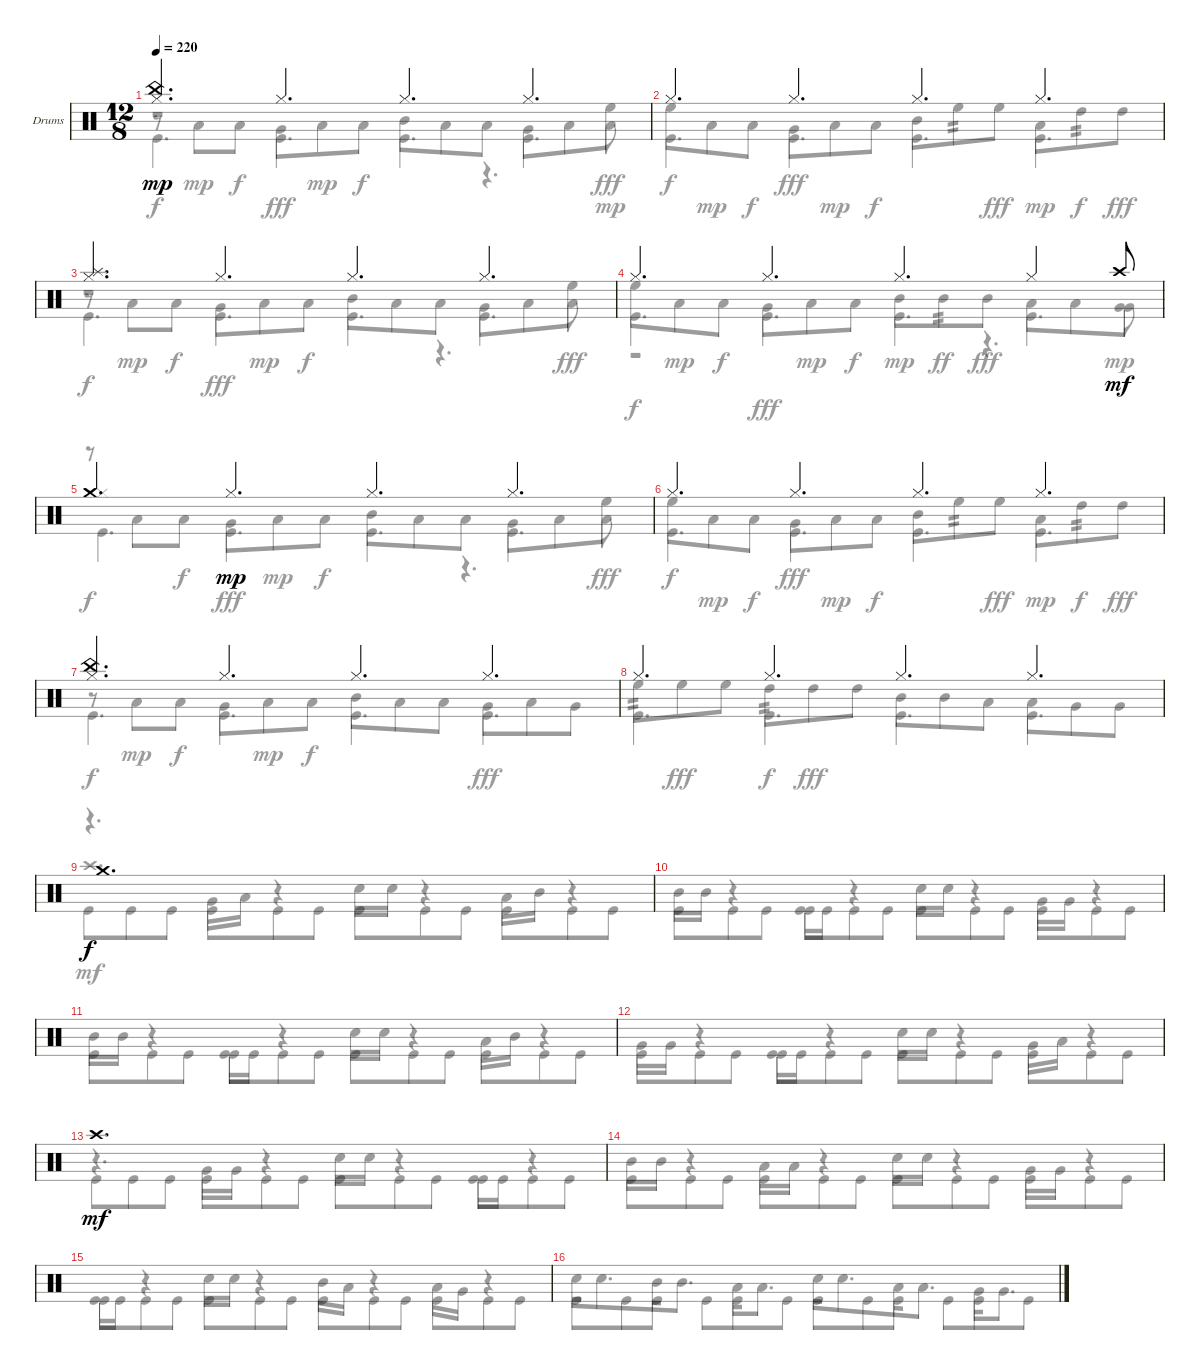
\defaultSystemsLayout 4
\bracketExtendMode groupsimilarinstruments
\firstSystemTrackNameOrientation horizontal
\otherSystemsTrackNameOrientation horizontal
\track ("Drumkit" "Drums") {instrument percussion}
\staff {score}
\articulation defaults
\voice
\ts (12 8)
\tempo 220
\clef neutral
\ks c
("China (hit)" "Hi-Hat (closed)").4{d dy mp} "Hi-Hat (closed)".4{d} "Hi-Hat (closed)".4{d} "Hi-Hat (closed)".4{d} |
"Hi-Hat (closed)".4{d} "Hi-Hat (closed)".4{d} "Hi-Hat (closed)".4{d} "Hi-Hat (closed)".4{d} |
("Splash (hit)" "Hi-Hat (closed)").4{d} "Hi-Hat (closed)".4{d} "Hi-Hat (closed)".4{d} "Hi-Hat (closed)".4{d} |
"Hi-Hat (closed)".4{d} "Hi-Hat (closed)".4{d} "Hi-Hat (closed)".4{d} "Hi-Hat (closed)".4 "Crash high (hit)".8{dy mf} |
"Crash medium (hit)".4{d} "Hi-Hat (closed)".4{d dy mp} "Hi-Hat (closed)".4{d} "Hi-Hat (closed)".4{d} |
"Hi-Hat (closed)".4{d} "Hi-Hat (closed)".4{d} "Hi-Hat (closed)".4{d} "Hi-Hat (closed)".4{d} |
("China (hit)" "Hi-Hat (closed)").4{d} "Hi-Hat (closed)".4{d} "Hi-Hat (closed)".4{d} "Hi-Hat (closed)".4{d} |
"Hi-Hat (closed)".4{d} "Hi-Hat (closed)".4{d} "Hi-Hat (closed)".4{d} "Hi-Hat (closed)".4{d} |
"Crash medium (hit)".1{d dy f} |
|
|
|
"Crash high (hit)".1{d dy mf} |
|
|
\voice
\clef neutral
\ottava regular
\simile none
\ks c
r.8{dy fff} "Low Tom (hit)".8{dy mp} "Low Tom (hit)".8{dy f} "Very Low Tom (hit)".8 "Low Tom (hit)".8{dy mp} "Low Tom (hit)".8{dy f} "Mid Tom (hit)".8 "Low Tom (hit)".8 "Low Tom (hit)".8 "Very Low Tom (hit)".8 "Low Tom (hit)".8 "High Floor Tom (hit)".8{dy fff} |
"High Floor Tom (hit)".8 "Low Tom (hit)".8{dy mp} "Low Tom (hit)".8{dy f} "Very Low Tom (hit)".8 "Low Tom (hit)".8{dy mp} "Low Tom (hit)".8{dy f} "Mid Tom (hit)".8 "High Floor Tom (hit)".8{tp 2} "High Floor Tom (hit)".8{dy fff} "Low Tom (hit)".8{dy mp} "High Tom (hit)".8{tp 2 dy f} "High Tom (hit)".8{dy fff} |
r.8 "Low Tom (hit)".8{dy mp} "Low Tom (hit)".8{dy f} "Very Low Tom (hit)".8 "Low Tom (hit)".8{dy mp} "Low Tom (hit)".8{dy f} "Mid Tom (hit)".8 "Low Tom (hit)".8 "Low Tom (hit)".8 "Very Low Tom (hit)".8 "Low Tom (hit)".8 "High Floor Tom (hit)".8{dy fff} |
"High Floor Tom (hit)".8 "Low Tom (hit)".8{dy mp} "Low Tom (hit)".8{dy f} "Very Low Tom (hit)".8 "Low Tom (hit)".8{dy mp} "Low Tom (hit)".8{dy f} "Mid Tom (hit)".8{dy mp} "Mid Tom (hit)".8{tp 2 dy ff} "Mid Tom (hit)".8{dy fff} "Low Tom (hit)".8 "Low Tom (hit)".8 "Very Low Tom (hit)".8{dy mp} |
r.8 "Low Tom (hit)".8 "Low Tom (hit)".8{dy f} "Very Low Tom (hit)".8 "Low Tom (hit)".8{dy mp} "Low Tom (hit)".8{dy f} "Mid Tom (hit)".8 "Low Tom (hit)".8 "Low Tom (hit)".8 "Very Low Tom (hit)".8 "Low Tom (hit)".8 "High Floor Tom (hit)".8{dy fff} |
"High Floor Tom (hit)".8 "Low Tom (hit)".8{dy mp} "Low Tom (hit)".8{dy f} "Very Low Tom (hit)".8 "Low Tom (hit)".8{dy mp} "Low Tom (hit)".8{dy f} "Mid Tom (hit)".8 "High Floor Tom (hit)".8{tp 2} "High Floor Tom (hit)".8{dy fff} "Low Tom (hit)".8{dy mp} "High Tom (hit)".8{tp 2 dy f} "High Tom (hit)".8{dy fff} |
r.8 "Low Tom (hit)".8{dy mp} "Low Tom (hit)".8{dy f} "Very Low Tom (hit)".8 "Low Tom (hit)".8{dy mp} "Low Tom (hit)".8{dy f} "Mid Tom (hit)".8 "Low Tom (hit)".8 "Low Tom (hit)".8 "Very Low Tom (hit)".8 "Low Tom (hit)".8 "Very Low Tom (hit)".8 |
"High Floor Tom (hit)".8{tp 2} "High Floor Tom (hit)".8{dy fff} "High Floor Tom (hit)".8 "High Tom (hit)".8{tp 2 dy f} "High Tom (hit)".8{dy fff} "High Tom (hit)".8 "Mid Tom (hit)".8 "Mid Tom (hit)".8 "Low Tom (hit)".8 "Low Tom (hit)".8 "Very Low Tom (hit)".8 "Very Low Tom (hit)".8 |
r.4{d} "Very Low Tom (hit)".16 "Low Tom (hit)".16 r.4 "Snare (hit) 2".16 "Snare (hit) 2".16 r.4 "Low Tom (hit)".16 "Mid Tom (hit)".16 r.4 |
"Mid Tom (hit)".16 "Mid Tom (hit)".16 r.4 "Kick (hit)".16 "Kick (hit)".16 r.4 "Snare (hit) 2".16 "Snare (hit) 2".16 r.4 "Very Low Tom (hit)".16 "Very Low Tom (hit)".16 r.4 |
"Mid Tom (hit)".16 "Mid Tom (hit)".16 r.4 "Kick (hit)".16 "Kick (hit)".16 r.4 "Snare (hit) 2".16 "Snare (hit) 2".16 r.4 "Low Tom (hit)".16 "Mid Tom (hit)".16 r.4 |
"Very Low Tom (hit)".16 "Very Low Tom (hit)".16 r.4 "Kick (hit)".16 "Kick (hit)".16 r.4 "Snare (hit) 2".16 "Snare (hit) 2".16 r.4 "Very Low Tom (hit)".16 "Low Tom (hit)".16 r.4 |
r.4{d} "Very Low Tom (hit)".16 "Very Low Tom (hit)".16 r.4 "Snare (hit) 2".16 "Snare (hit) 2".16 r.4 "Kick (hit)".16 "Kick (hit)".16 r.4 |
"Mid Tom (hit)".16 "Mid Tom (hit)".16 r.4 "Low Tom (hit)".16 "Low Tom (hit)".16 r.4 "Snare (hit) 2".16 "Snare (hit) 2".16 r.4 "Very Low Tom (hit)".16 "Very Low Tom (hit)".16 r.4 |
"Kick (hit)".16 "Kick (hit)".16 r.4 "Snare (hit) 2".16 "Snare (hit) 2".16 r.4 "Mid Tom (hit)".16 "Low Tom (hit)".16 r.4 "Low Tom (hit)".16 "Very Low Tom (hit)".16 r.4 |
"Snare (hit) 2".16 "Snare (hit) 2".8{d} "Mid Tom (hit)".16 "Mid Tom (hit)".8{d} "Low Tom (hit)".16 "Low Tom (hit)".8{d} "Snare (hit) 2".16 "Snare (hit) 2".8{d} "Low Tom (hit)".16 "Low Tom (hit)".8{d} "Very Low Tom (hit)".16 "Very Low Tom (hit)".8{d}
\voice
\clef neutral
\ottava regular
\simile none
\ks c "Kick (hit)".4{d dy f} "Kick (hit)".4{d dy fff} "Kick (hit)".4{d} "Kick (hit)".4{d}
|
"Kick (hit)".4{d dy f} "Kick (hit)".4{d dy fff} "Kick (hit)".4{d} "Kick (hit)".4{d} |
"Kick (hit)".4{d dy f} "Kick (hit)".4{d dy fff} "Kick (hit)".4{d} "Kick (hit)".4{d} |
"Kick (hit)".4{d dy f} "Kick (hit)".4{d dy fff} "Kick (hit)".4{d} "Kick (hit)".4{d} |
"Kick (hit)".4{d dy f} "Kick (hit)".4{d dy fff} "Kick (hit)".4{d} "Kick (hit)".4{d} |
"Kick (hit)".4{d dy f} "Kick (hit)".4{d dy fff} "Kick (hit)".4{d} "Kick (hit)".4{d} |
"Kick (hit)".4{d dy f} "Kick (hit)".4{d} "Kick (hit)".4{d} "Kick (hit)".4{d dy fff} |
"Kick (hit)".4{d} "Kick (hit)".4{d} "Kick (hit)".4{d} "Kick (hit)".4{d} |
"Kick (hit)".8 "Kick (hit)".8 "Kick (hit)".8 "Kick (hit)".8 "Kick (hit)".8 "Kick (hit)".8 "Kick (hit)".8 "Kick (hit)".8 "Kick (hit)".8 "Kick (hit)".8 "Kick (hit)".8 "Kick (hit)".8 |
"Kick (hit)".8 "Kick (hit)".8 "Kick (hit)".8 "Kick (hit)".8 "Kick (hit)".8 "Kick (hit)".8 "Kick (hit)".8 "Kick (hit)".8 "Kick (hit)".8 "Kick (hit)".8 "Kick (hit)".8 "Kick (hit)".8 |
"Kick (hit)".8 "Kick (hit)".8 "Kick (hit)".8 "Kick (hit)".8 "Kick (hit)".8 "Kick (hit)".8 "Kick (hit)".8 "Kick (hit)".8 "Kick (hit)".8 "Kick (hit)".8 "Kick (hit)".8 "Kick (hit)".8 |
"Kick (hit)".8 "Kick (hit)".8 "Kick (hit)".8 "Kick (hit)".8 "Kick (hit)".8 "Kick (hit)".8 "Kick (hit)".8 "Kick (hit)".8 "Kick (hit)".8 "Kick (hit)".8 "Kick (hit)".8 "Kick (hit)".8 |
"Kick (hit)".8 "Kick (hit)".8 "Kick (hit)".8 "Kick (hit)".8 "Kick (hit)".8 "Kick (hit)".8 "Kick (hit)".8 "Kick (hit)".8 "Kick (hit)".8 "Kick (hit)".8 "Kick (hit)".8 "Kick (hit)".8 |
"Kick (hit)".8 "Kick (hit)".8 "Kick (hit)".8 "Kick (hit)".8 "Kick (hit)".8 "Kick (hit)".8 "Kick (hit)".8 "Kick (hit)".8 "Kick (hit)".8 "Kick (hit)".8 "Kick (hit)".8 "Kick (hit)".8 |
"Kick (hit)".8 "Kick (hit)".8 "Kick (hit)".8 "Kick (hit)".8 "Kick (hit)".8 "Kick (hit)".8 "Kick (hit)".8 "Kick (hit)".8 "Kick (hit)".8 "Kick (hit)".8 "Kick (hit)".8 "Kick (hit)".8 |
"Kick (hit)".8 "Kick (hit)".8 "Kick (hit)".8 "Kick (hit)".8 "Kick (hit)".8 "Kick (hit)".8 "Kick (hit)".8 "Kick (hit)".8 "Kick (hit)".8 "Kick (hit)".8 "Kick (hit)".8 "Kick (hit)".8
\voice
\clef neutral
\ottava regular
\simile none
\ks c
r.1{dy f} r.4{d} "Low Tom (hit)".8{dy mp} |
|
r.1 r.4{d} "Low Tom (hit)".8 |
r.1 r.4{d} "Very Low Tom (hit)".8 |
"Hi-Hat (closed)".1 r.4{d} "Low Tom (hit)".8 |
|
|
|
"Crash high (hit)".1{d dy mf} |
|
|
|
|
|
|
